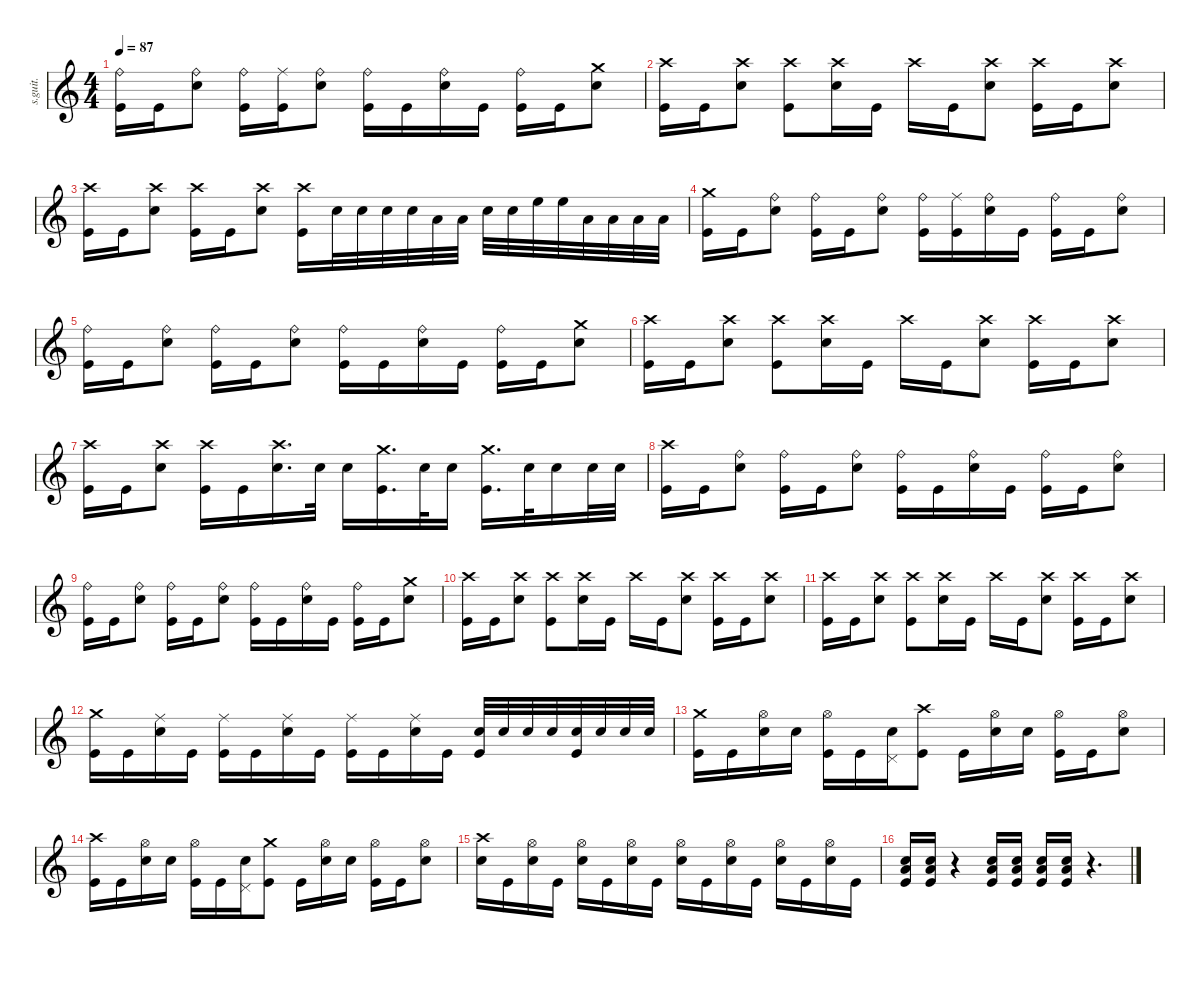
\defaultSystemsLayout 4
\hideDynamics
\bracketExtendMode nobrackets
\track ("Taylor Hawkins (Drums)" "s.guit.") {instrument percussion}
\staff {score}
\articulation defaults
\ts (4 4)
\tempo 87
\clef g2
\ks c
("Ride (bell)" "Kick (hit)").16{lyrics (0 "") lyrics (1 "") lyrics (2 "") lyrics (3 "") lyrics (4 "") dy f} "Kick (hit)".16{lyrics (0 "") lyrics (1 "") lyrics (2 "") lyrics (3 "") lyrics (4 "")} ("Ride (bell)" "Snare (hit) 2").8{lyrics (0 "") lyrics (1 "") lyrics (2 "") lyrics (3 "") lyrics (4 "")} ("Ride (bell)" "Kick (hit)").16{lyrics (0 "") lyrics (1 "") lyrics (2 "") lyrics (3 "") lyrics (4 "")} ("Ride (middle)" "Kick (hit)").16{lyrics (0 "") lyrics (1 "") lyrics (2 "") lyrics (3 "") lyrics (4 "")} ("Ride (bell)" "Snare (hit) 2").8{lyrics (0 "") lyrics (1 "") lyrics (2 "") lyrics (3 "") lyrics (4 "")} ("Ride (bell)" "Kick (hit)").16{lyrics (0 "") lyrics (1 "") lyrics (2 "") lyrics (3 "") lyrics (4 "")} "Kick (hit)".16{lyrics (0 "") lyrics (1 "") lyrics (2 "") lyrics (3 "") lyrics (4 "")} ("Ride (bell)" "Snare (hit) 2").16{lyrics (0 "") lyrics (1 "") lyrics (2 "") lyrics (3 "") lyrics (4 "")} "Kick (hit)".16{lyrics (0 "") lyrics (1 "") lyrics (2 "") lyrics (3 "") lyrics (4 "")} ("Ride (bell)" "Kick (hit)").16{lyrics (0 "") lyrics (1 "") lyrics (2 "") lyrics (3 "") lyrics (4 "")} "Kick (hit)".16{lyrics (0 "") lyrics (1 "") lyrics (2 "") lyrics (3 "") lyrics (4 "")} ("Crash medium (hit)" "Snare (hit) 2").8{lyrics (0 "") lyrics (1 "") lyrics (2 "") lyrics (3 "") lyrics (4 "")} |
("Crash high (hit)" "Kick (hit)").16{lyrics (0 "") lyrics (1 "") lyrics (2 "") lyrics (3 "") lyrics (4 "")} "Kick (hit)".16{lyrics (0 "") lyrics (1 "") lyrics (2 "") lyrics (3 "") lyrics (4 "")} ("Crash high (hit)" "Snare (hit) 2").8{lyrics (0 "") lyrics (1 "") lyrics (2 "") lyrics (3 "") lyrics (4 "")} ("Crash high (hit)" "Kick (hit)").8{lyrics (0 "") lyrics (1 "") lyrics (2 "") lyrics (3 "") lyrics (4 "")} ("Crash high (hit)" "Snare (hit) 2").16{lyrics (0 "") lyrics (1 "") lyrics (2 "") lyrics (3 "") lyrics (4 "")} "Kick (hit)".16{lyrics (0 "") lyrics (1 "") lyrics (2 "") lyrics (3 "") lyrics (4 "")} "Crash high (hit)".16{lyrics (0 "") lyrics (1 "") lyrics (2 "") lyrics (3 "") lyrics (4 "")} "Kick (hit)".16{lyrics (0 "") lyrics (1 "") lyrics (2 "") lyrics (3 "") lyrics (4 "")} ("Crash high (hit)" "Snare (hit) 2").8{lyrics (0 "") lyrics (1 "") lyrics (2 "") lyrics (3 "") lyrics (4 "")} ("Crash high (hit)" "Kick (hit)").16{lyrics (0 "") lyrics (1 "") lyrics (2 "") lyrics (3 "") lyrics (4 "")} "Kick (hit)".16{lyrics (0 "") lyrics (1 "") lyrics (2 "") lyrics (3 "") lyrics (4 "")} ("Crash high (hit)" "Snare (hit) 2").8{lyrics (0 "") lyrics (1 "") lyrics (2 "") lyrics (3 "") lyrics (4 "")} |
("Crash high (hit)" "Kick (hit)").16{lyrics (0 "") lyrics (1 "") lyrics (2 "") lyrics (3 "") lyrics (4 "")} "Kick (hit)".16{lyrics (0 "") lyrics (1 "") lyrics (2 "") lyrics (3 "") lyrics (4 "")} ("Crash high (hit)" "Snare (hit) 2").8{lyrics (0 "") lyrics (1 "") lyrics (2 "") lyrics (3 "") lyrics (4 "")} ("Crash high (hit)" "Kick (hit)").16{lyrics (0 "") lyrics (1 "") lyrics (2 "") lyrics (3 "") lyrics (4 "")} "Kick (hit)".16{lyrics (0 "") lyrics (1 "") lyrics (2 "") lyrics (3 "") lyrics (4 "")} ("Crash high (hit)" "Snare (hit) 2").8{lyrics (0 "") lyrics (1 "") lyrics (2 "") lyrics (3 "") lyrics (4 "")} ("Crash high (hit)" "Kick (hit)").16{lyrics (0 "") lyrics (1 "") lyrics (2 "") lyrics (3 "") lyrics (4 "")} "Snare (hit) 2".32{lyrics (0 "") lyrics (1 "") lyrics (2 "") lyrics (3 "") lyrics (4 "")} "Snare (hit) 2".32{lyrics (0 "") lyrics (1 "") lyrics (2 "") lyrics (3 "") lyrics (4 "")} "Snare (hit) 2".32{lyrics (0 "") lyrics (1 "") lyrics (2 "") lyrics (3 "") lyrics (4 "")} "Snare (hit) 2".32{lyrics (0 "") lyrics (1 "") lyrics (2 "") lyrics (3 "") lyrics (4 "")} "Low Tom (hit)".32{lyrics (0 "") lyrics (1 "") lyrics (2 "") lyrics (3 "") lyrics (4 "") dy ff} "Low Tom (hit)".32{lyrics (0 "") lyrics (1 "") lyrics (2 "") lyrics (3 "") lyrics (4 "")} "Snare (hit) 2".32{lyrics (0 "") lyrics (1 "") lyrics (2 "") lyrics (3 "") lyrics (4 "") dy f} "Snare (hit) 2".32{lyrics (0 "") lyrics (1 "") lyrics (2 "") lyrics (3 "") lyrics (4 "")} "High Floor Tom (hit)".32{lyrics (0 "") lyrics (1 "") lyrics (2 "") lyrics (3 "") lyrics (4 "") dy ff} "High Floor Tom (hit)".32{lyrics (0 "") lyrics (1 "") lyrics (2 "") lyrics (3 "") lyrics (4 "")} "Low Tom (hit)".32{lyrics (0 "") lyrics (1 "") lyrics (2 "") lyrics (3 "") lyrics (4 "")} "Low Tom (hit)".32{lyrics (0 "") lyrics (1 "") lyrics (2 "") lyrics (3 "") lyrics (4 "")} "Low Floor Tom (hit)".32{lyrics (0 "") lyrics (1 "") lyrics (2 "") lyrics (3 "") lyrics (4 "")} "Low Floor Tom (hit)".32{lyrics (0 "") lyrics (1 "") lyrics (2 "") lyrics (3 "") lyrics (4 "")} |
("Crash medium (hit)" "Kick (hit)").16{lyrics (0 "") lyrics (1 "") lyrics (2 "") lyrics (3 "") lyrics (4 "") dy f} "Kick (hit)".16{lyrics (0 "") lyrics (1 "") lyrics (2 "") lyrics (3 "") lyrics (4 "")} ("Ride (bell)" "Snare (hit) 2").8{lyrics (0 "") lyrics (1 "") lyrics (2 "") lyrics (3 "") lyrics (4 "")} ("Ride (bell)" "Kick (hit)").16{lyrics (0 "") lyrics (1 "") lyrics (2 "") lyrics (3 "") lyrics (4 "")} "Kick (hit)".16{lyrics (0 "") lyrics (1 "") lyrics (2 "") lyrics (3 "") lyrics (4 "")} ("Ride (bell)" "Snare (hit) 2").8{lyrics (0 "") lyrics (1 "") lyrics (2 "") lyrics (3 "") lyrics (4 "")} ("Ride (bell)" "Kick (hit)").16{lyrics (0 "") lyrics (1 "") lyrics (2 "") lyrics (3 "") lyrics (4 "")} ("Ride (middle)" "Kick (hit)").16{lyrics (0 "") lyrics (1 "") lyrics (2 "") lyrics (3 "") lyrics (4 "")} ("Ride (bell)" "Snare (hit) 2").16{lyrics (0 "") lyrics (1 "") lyrics (2 "") lyrics (3 "") lyrics (4 "")} "Kick (hit)".16{lyrics (0 "") lyrics (1 "") lyrics (2 "") lyrics (3 "") lyrics (4 "")} ("Ride (bell)" "Kick (hit)").16{lyrics (0 "") lyrics (1 "") lyrics (2 "") lyrics (3 "") lyrics (4 "")} "Kick (hit)".16{lyrics (0 "") lyrics (1 "") lyrics (2 "") lyrics (3 "") lyrics (4 "")} ("Ride (bell)" "Snare (hit) 2").8{lyrics (0 "") lyrics (1 "") lyrics (2 "") lyrics (3 "") lyrics (4 "")} |
("Ride (bell)" "Kick (hit)").16{lyrics (0 "") lyrics (1 "") lyrics (2 "") lyrics (3 "") lyrics (4 "")} "Kick (hit)".16{lyrics (0 "") lyrics (1 "") lyrics (2 "") lyrics (3 "") lyrics (4 "")} ("Ride (bell)" "Snare (hit) 2").8{lyrics (0 "") lyrics (1 "") lyrics (2 "") lyrics (3 "") lyrics (4 "")} ("Ride (bell)" "Kick (hit)").16{lyrics (0 "") lyrics (1 "") lyrics (2 "") lyrics (3 "") lyrics (4 "")} "Kick (hit)".16{lyrics (0 "") lyrics (1 "") lyrics (2 "") lyrics (3 "") lyrics (4 "")} ("Ride (bell)" "Snare (hit) 2").8{lyrics (0 "") lyrics (1 "") lyrics (2 "") lyrics (3 "") lyrics (4 "")} ("Ride (bell)" "Kick (hit)").16{lyrics (0 "") lyrics (1 "") lyrics (2 "") lyrics (3 "") lyrics (4 "")} "Kick (hit)".16{lyrics (0 "") lyrics (1 "") lyrics (2 "") lyrics (3 "") lyrics (4 "")} ("Ride (bell)" "Snare (hit) 2").16{lyrics (0 "") lyrics (1 "") lyrics (2 "") lyrics (3 "") lyrics (4 "")} "Kick (hit)".16{lyrics (0 "") lyrics (1 "") lyrics (2 "") lyrics (3 "") lyrics (4 "")} ("Ride (bell)" "Kick (hit)").16{lyrics (0 "") lyrics (1 "") lyrics (2 "") lyrics (3 "") lyrics (4 "")} "Kick (hit)".16{lyrics (0 "") lyrics (1 "") lyrics (2 "") lyrics (3 "") lyrics (4 "")} ("Crash medium (hit)" "Snare (hit) 2").8{lyrics (0 "") lyrics (1 "") lyrics (2 "") lyrics (3 "") lyrics (4 "")} |
("Crash high (hit)" "Kick (hit)").16{lyrics (0 "") lyrics (1 "") lyrics (2 "") lyrics (3 "") lyrics (4 "")} "Kick (hit)".16{lyrics (0 "") lyrics (1 "") lyrics (2 "") lyrics (3 "") lyrics (4 "")} ("Crash high (hit)" "Snare (hit) 2").8{lyrics (0 "") lyrics (1 "") lyrics (2 "") lyrics (3 "") lyrics (4 "")} ("Crash high (hit)" "Kick (hit)").8{lyrics (0 "") lyrics (1 "") lyrics (2 "") lyrics (3 "") lyrics (4 "")} ("Crash high (hit)" "Snare (hit) 2").16{lyrics (0 "") lyrics (1 "") lyrics (2 "") lyrics (3 "") lyrics (4 "")} "Kick (hit)".16{lyrics (0 "") lyrics (1 "") lyrics (2 "") lyrics (3 "") lyrics (4 "")} "Crash high (hit)".16{lyrics (0 "") lyrics (1 "") lyrics (2 "") lyrics (3 "") lyrics (4 "")} "Kick (hit)".16{lyrics (0 "") lyrics (1 "") lyrics (2 "") lyrics (3 "") lyrics (4 "")} ("Crash high (hit)" "Snare (hit) 2").8{lyrics (0 "") lyrics (1 "") lyrics (2 "") lyrics (3 "") lyrics (4 "")} ("Crash high (hit)" "Kick (hit)").16{lyrics (0 "") lyrics (1 "") lyrics (2 "") lyrics (3 "") lyrics (4 "")} "Kick (hit)".16{lyrics (0 "") lyrics (1 "") lyrics (2 "") lyrics (3 "") lyrics (4 "")} ("Crash high (hit)" "Snare (hit) 2").8{lyrics (0 "") lyrics (1 "") lyrics (2 "") lyrics (3 "") lyrics (4 "")} |
("Crash high (hit)" "Kick (hit)").16{lyrics (0 "") lyrics (1 "") lyrics (2 "") lyrics (3 "") lyrics (4 "")} "Kick (hit)".16{lyrics (0 "") lyrics (1 "") lyrics (2 "") lyrics (3 "") lyrics (4 "")} ("Crash high (hit)" "Snare (hit) 2").8{lyrics (0 "") lyrics (1 "") lyrics (2 "") lyrics (3 "") lyrics (4 "")} ("Crash high (hit)" "Kick (hit)").16{lyrics (0 "") lyrics (1 "") lyrics (2 "") lyrics (3 "") lyrics (4 "")} "Kick (hit)".16{lyrics (0 "") lyrics (1 "") lyrics (2 "") lyrics (3 "") lyrics (4 "")} ("Crash high (hit)" "Snare (hit) 2").16{d lyrics (0 "") lyrics (1 "") lyrics (2 "") lyrics (3 "") lyrics (4 "")} "Snare (hit) 2".32{lyrics (0 "") lyrics (1 "") lyrics (2 "") lyrics (3 "") lyrics (4 "")} "Snare (hit) 2".16{lyrics (0 "") lyrics (1 "") lyrics (2 "") lyrics (3 "") lyrics (4 "")} ("Crash medium (hit)" "Kick (hit)").16{d lyrics (0 "") lyrics (1 "") lyrics (2 "") lyrics (3 "") lyrics (4 "")} "Snare (hit) 2".32{lyrics (0 "") lyrics (1 "") lyrics (2 "") lyrics (3 "") lyrics (4 "")} "Snare (hit) 2".16{lyrics (0 "") lyrics (1 "") lyrics (2 "") lyrics (3 "") lyrics (4 "")} ("Crash medium (hit)" "Kick (hit)").16{d lyrics (0 "") lyrics (1 "") lyrics (2 "") lyrics (3 "") lyrics (4 "")} "Snare (hit) 2".32{lyrics (0 "") lyrics (1 "") lyrics (2 "") lyrics (3 "") lyrics (4 "")} "Snare (hit) 2".16{lyrics (0 "") lyrics (1 "") lyrics (2 "") lyrics (3 "") lyrics (4 "")} "Snare (hit) 2".32{lyrics (0 "") lyrics (1 "") lyrics (2 "") lyrics (3 "") lyrics (4 "")} "Snare (hit) 2".32{lyrics (0 "") lyrics (1 "") lyrics (2 "") lyrics (3 "") lyrics (4 "")} |
("Crash high (hit)" "Kick (hit)").16{lyrics (0 "") lyrics (1 "") lyrics (2 "") lyrics (3 "") lyrics (4 "")} "Kick (hit)".16{lyrics (0 "") lyrics (1 "") lyrics (2 "") lyrics (3 "") lyrics (4 "")} ("Ride (bell)" "Snare (hit) 2").8{lyrics (0 "") lyrics (1 "") lyrics (2 "") lyrics (3 "") lyrics (4 "")} ("Ride (bell)" "Kick (hit)").16{lyrics (0 "") lyrics (1 "") lyrics (2 "") lyrics (3 "") lyrics (4 "")} "Kick (hit)".16{lyrics (0 "") lyrics (1 "") lyrics (2 "") lyrics (3 "") lyrics (4 "")} ("Ride (bell)" "Snare (hit) 2").8{lyrics (0 "") lyrics (1 "") lyrics (2 "") lyrics (3 "") lyrics (4 "")} ("Ride (bell)" "Kick (hit)").16{lyrics (0 "") lyrics (1 "") lyrics (2 "") lyrics (3 "") lyrics (4 "")} "Kick (hit)".16{lyrics (0 "") lyrics (1 "") lyrics (2 "") lyrics (3 "") lyrics (4 "")} ("Ride (bell)" "Snare (hit) 2").16{lyrics (0 "") lyrics (1 "") lyrics (2 "") lyrics (3 "") lyrics (4 "")} "Kick (hit)".16{lyrics (0 "") lyrics (1 "") lyrics (2 "") lyrics (3 "") lyrics (4 "")} ("Ride (bell)" "Kick (hit)").16{lyrics (0 "") lyrics (1 "") lyrics (2 "") lyrics (3 "") lyrics (4 "")} "Kick (hit)".16{lyrics (0 "") lyrics (1 "") lyrics (2 "") lyrics (3 "") lyrics (4 "")} ("Ride (bell)" "Snare (hit) 2").8{lyrics (0 "") lyrics (1 "") lyrics (2 "") lyrics (3 "") lyrics (4 "")} |
("Ride (bell)" "Kick (hit)").16{lyrics (0 "") lyrics (1 "") lyrics (2 "") lyrics (3 "") lyrics (4 "")} "Kick (hit)".16{lyrics (0 "") lyrics (1 "") lyrics (2 "") lyrics (3 "") lyrics (4 "")} ("Ride (bell)" "Snare (hit) 2").8{lyrics (0 "") lyrics (1 "") lyrics (2 "") lyrics (3 "") lyrics (4 "")} ("Ride (bell)" "Kick (hit)").16{lyrics (0 "") lyrics (1 "") lyrics (2 "") lyrics (3 "") lyrics (4 "")} "Kick (hit)".16{lyrics (0 "") lyrics (1 "") lyrics (2 "") lyrics (3 "") lyrics (4 "")} ("Ride (bell)" "Snare (hit) 2").8{lyrics (0 "") lyrics (1 "") lyrics (2 "") lyrics (3 "") lyrics (4 "")} ("Ride (bell)" "Kick (hit)").16{lyrics (0 "") lyrics (1 "") lyrics (2 "") lyrics (3 "") lyrics (4 "")} "Kick (hit)".16{lyrics (0 "") lyrics (1 "") lyrics (2 "") lyrics (3 "") lyrics (4 "")} ("Ride (bell)" "Snare (hit) 2").16{lyrics (0 "") lyrics (1 "") lyrics (2 "") lyrics (3 "") lyrics (4 "")} "Kick (hit)".16{lyrics (0 "") lyrics (1 "") lyrics (2 "") lyrics (3 "") lyrics (4 "")} ("Ride (bell)" "Kick (hit)").16{lyrics (0 "") lyrics (1 "") lyrics (2 "") lyrics (3 "") lyrics (4 "")} "Kick (hit)".16{lyrics (0 "") lyrics (1 "") lyrics (2 "") lyrics (3 "") lyrics (4 "")} ("Crash medium (hit)" "Snare (hit) 2").8{lyrics (0 "") lyrics (1 "") lyrics (2 "") lyrics (3 "") lyrics (4 "")} |
("Crash high (hit)" "Kick (hit)").16{lyrics (0 "") lyrics (1 "") lyrics (2 "") lyrics (3 "") lyrics (4 "")} "Kick (hit)".16{lyrics (0 "") lyrics (1 "") lyrics (2 "") lyrics (3 "") lyrics (4 "")} ("Crash high (hit)" "Snare (hit) 2").8{lyrics (0 "") lyrics (1 "") lyrics (2 "") lyrics (3 "") lyrics (4 "")} ("Crash high (hit)" "Kick (hit)").8{lyrics (0 "") lyrics (1 "") lyrics (2 "") lyrics (3 "") lyrics (4 "")} ("Crash high (hit)" "Snare (hit) 2").16{lyrics (0 "") lyrics (1 "") lyrics (2 "") lyrics (3 "") lyrics (4 "")} "Kick (hit)".16{lyrics (0 "") lyrics (1 "") lyrics (2 "") lyrics (3 "") lyrics (4 "")} "Crash high (hit)".16{lyrics (0 "") lyrics (1 "") lyrics (2 "") lyrics (3 "") lyrics (4 "")} "Kick (hit)".16{lyrics (0 "") lyrics (1 "") lyrics (2 "") lyrics (3 "") lyrics (4 "")} ("Crash high (hit)" "Snare (hit) 2").8{lyrics (0 "") lyrics (1 "") lyrics (2 "") lyrics (3 "") lyrics (4 "")} ("Crash high (hit)" "Kick (hit)").16{lyrics (0 "") lyrics (1 "") lyrics (2 "") lyrics (3 "") lyrics (4 "")} "Kick (hit)".16{lyrics (0 "") lyrics (1 "") lyrics (2 "") lyrics (3 "") lyrics (4 "")} ("Crash high (hit)" "Snare (hit) 2").8{lyrics (0 "") lyrics (1 "") lyrics (2 "") lyrics (3 "") lyrics (4 "")} |
("Crash high (hit)" "Kick (hit)").16{lyrics (0 "") lyrics (1 "") lyrics (2 "") lyrics (3 "") lyrics (4 "")} "Kick (hit)".16{lyrics (0 "") lyrics (1 "") lyrics (2 "") lyrics (3 "") lyrics (4 "")} ("Crash high (hit)" "Snare (hit) 2").8{lyrics (0 "") lyrics (1 "") lyrics (2 "") lyrics (3 "") lyrics (4 "")} ("Crash high (hit)" "Kick (hit)").8{lyrics (0 "") lyrics (1 "") lyrics (2 "") lyrics (3 "") lyrics (4 "")} ("Crash high (hit)" "Snare (hit) 2").16{lyrics (0 "") lyrics (1 "") lyrics (2 "") lyrics (3 "") lyrics (4 "")} "Kick (hit)".16{lyrics (0 "") lyrics (1 "") lyrics (2 "") lyrics (3 "") lyrics (4 "")} "Crash high (hit)".16{lyrics (0 "") lyrics (1 "") lyrics (2 "") lyrics (3 "") lyrics (4 "")} "Kick (hit)".16{lyrics (0 "") lyrics (1 "") lyrics (2 "") lyrics (3 "") lyrics (4 "")} ("Crash high (hit)" "Snare (hit) 2").8{lyrics (0 "") lyrics (1 "") lyrics (2 "") lyrics (3 "") lyrics (4 "")} ("Crash high (hit)" "Kick (hit)").16{lyrics (0 "") lyrics (1 "") lyrics (2 "") lyrics (3 "") lyrics (4 "")} "Kick (hit)".16{lyrics (0 "") lyrics (1 "") lyrics (2 "") lyrics (3 "") lyrics (4 "")} ("Crash high (hit)" "Snare (hit) 2").8{lyrics (0 "") lyrics (1 "") lyrics (2 "") lyrics (3 "") lyrics (4 "")} |
("Crash medium (hit)" "Kick (hit)").16{lyrics (0 "") lyrics (1 "") lyrics (2 "") lyrics (3 "") lyrics (4 "")} "Kick (hit)".16{lyrics (0 "") lyrics (1 "") lyrics (2 "") lyrics (3 "") lyrics (4 "")} ("Ride (middle)" "Snare (hit) 2").16{lyrics (0 "") lyrics (1 "") lyrics (2 "") lyrics (3 "") lyrics (4 "")} "Kick (hit)".16{lyrics (0 "") lyrics (1 "") lyrics (2 "") lyrics (3 "") lyrics (4 "")} ("Ride (middle)" "Kick (hit)").16{lyrics (0 "") lyrics (1 "") lyrics (2 "") lyrics (3 "") lyrics (4 "")} "Kick (hit)".16{lyrics (0 "") lyrics (1 "") lyrics (2 "") lyrics (3 "") lyrics (4 "")} ("Ride (middle)" "Snare (hit) 2").16{lyrics (0 "") lyrics (1 "") lyrics (2 "") lyrics (3 "") lyrics (4 "")} "Kick (hit)".16{lyrics (0 "") lyrics (1 "") lyrics (2 "") lyrics (3 "") lyrics (4 "")} ("Ride (middle)" "Kick (hit)").16{lyrics (0 "") lyrics (1 "") lyrics (2 "") lyrics (3 "") lyrics (4 "")} "Kick (hit)".16{lyrics (0 "") lyrics (1 "") lyrics (2 "") lyrics (3 "") lyrics (4 "")} ("Ride (middle)" "Snare (hit) 2").16{lyrics (0 "") lyrics (1 "") lyrics (2 "") lyrics (3 "") lyrics (4 "")} "Kick (hit)".16{lyrics (0 "") lyrics (1 "") lyrics (2 "") lyrics (3 "") lyrics (4 "")} ("Snare (hit) 2" "Kick (hit)").32{lyrics (0 "") lyrics (1 "") lyrics (2 "") lyrics (3 "") lyrics (4 "")} "Snare (hit) 2".32{lyrics (0 "") lyrics (1 "") lyrics (2 "") lyrics (3 "") lyrics (4 "")} "Snare (hit) 2".32{lyrics (0 "") lyrics (1 "") lyrics (2 "") lyrics (3 "") lyrics (4 "")} "Snare (hit) 2".32{lyrics (0 "") lyrics (1 "") lyrics (2 "") lyrics (3 "") lyrics (4 "")} ("Snare (hit) 2" "Kick (hit)").32{lyrics (0 "") lyrics (1 "") lyrics (2 "") lyrics (3 "") lyrics (4 "")} "Snare (hit) 2".32{lyrics (0 "") lyrics (1 "") lyrics (2 "") lyrics (3 "") lyrics (4 "")} "Snare (hit) 2".32{lyrics (0 "") lyrics (1 "") lyrics (2 "") lyrics (3 "") lyrics (4 "")} "Snare (hit) 2".32{lyrics (0 "") lyrics (1 "") lyrics (2 "") lyrics (3 "") lyrics (4 "")} |
("Crash medium (hit)" "Kick (hit)").16{lyrics (0 "") lyrics (1 "") lyrics (2 "") lyrics (3 "") lyrics (4 "")} "Kick (hit)".16{lyrics (0 "") lyrics (1 "") lyrics (2 "") lyrics (3 "") lyrics (4 "")} ("Hi-Hat (open)" "Snare (hit) 2").16{lyrics (0 "") lyrics (1 "") lyrics (2 "") lyrics (3 "") lyrics (4 "")} "Snare (hit) 2".16{lyrics (0 "") lyrics (1 "") lyrics (2 "") lyrics (3 "") lyrics (4 "")} ("Hi-Hat (open)" "Kick (hit)").16{lyrics (0 "") lyrics (1 "") lyrics (2 "") lyrics (3 "") lyrics (4 "")} "Kick (hit)".16{lyrics (0 "") lyrics (1 "") lyrics (2 "") lyrics (3 "") lyrics (4 "")} ("Snare (hit) 2" "Pedal Hi-Hat (hit)").16{lyrics (0 "") lyrics (1 "") lyrics (2 "") lyrics (3 "") lyrics (4 "")} ("Crash high (hit)" "Kick (hit)").8{lyrics (0 "") lyrics (1 "") lyrics (2 "") lyrics (3 "") lyrics (4 "")} "Kick (hit)".16{lyrics (0 "") lyrics (1 "") lyrics (2 "") lyrics (3 "") lyrics (4 "")} ("Hi-Hat (open)" "Snare (hit) 2").16{lyrics (0 "") lyrics (1 "") lyrics (2 "") lyrics (3 "") lyrics (4 "")} "Snare (hit) 2".16{lyrics (0 "") lyrics (1 "") lyrics (2 "") lyrics (3 "") lyrics (4 "")} ("Hi-Hat (open)" "Kick (hit)").16{lyrics (0 "") lyrics (1 "") lyrics (2 "") lyrics (3 "") lyrics (4 "")} "Kick (hit)".16{lyrics (0 "") lyrics (1 "") lyrics (2 "") lyrics (3 "") lyrics (4 "")} ("Hi-Hat (open)" "Snare (hit) 2").8{lyrics (0 "") lyrics (1 "") lyrics (2 "") lyrics (3 "") lyrics (4 "")} |
("Crash high (hit)" "Kick (hit)").16{lyrics (0 "") lyrics (1 "") lyrics (2 "") lyrics (3 "") lyrics (4 "")} "Kick (hit)".16{lyrics (0 "") lyrics (1 "") lyrics (2 "") lyrics (3 "") lyrics (4 "")} ("Hi-Hat (open)" "Snare (hit) 2").16{lyrics (0 "") lyrics (1 "") lyrics (2 "") lyrics (3 "") lyrics (4 "")} "Snare (hit) 2".16{lyrics (0 "") lyrics (1 "") lyrics (2 "") lyrics (3 "") lyrics (4 "")} ("Hi-Hat (open)" "Kick (hit)").16{lyrics (0 "") lyrics (1 "") lyrics (2 "") lyrics (3 "") lyrics (4 "")} "Kick (hit)".16{lyrics (0 "") lyrics (1 "") lyrics (2 "") lyrics (3 "") lyrics (4 "")} ("Snare (hit) 2" "Pedal Hi-Hat (hit)").16{lyrics (0 "") lyrics (1 "") lyrics (2 "") lyrics (3 "") lyrics (4 "")} ("Crash medium (hit)" "Kick (hit)").8{lyrics (0 "") lyrics (1 "") lyrics (2 "") lyrics (3 "") lyrics (4 "")} "Kick (hit)".16{lyrics (0 "") lyrics (1 "") lyrics (2 "") lyrics (3 "") lyrics (4 "")} ("Hi-Hat (open)" "Snare (hit) 2").16{lyrics (0 "") lyrics (1 "") lyrics (2 "") lyrics (3 "") lyrics (4 "")} "Snare (hit) 2".16{lyrics (0 "") lyrics (1 "") lyrics (2 "") lyrics (3 "") lyrics (4 "")} ("Hi-Hat (open)" "Kick (hit)").16{lyrics (0 "") lyrics (1 "") lyrics (2 "") lyrics (3 "") lyrics (4 "")} "Kick (hit)".16{lyrics (0 "") lyrics (1 "") lyrics (2 "") lyrics (3 "") lyrics (4 "")} ("Hi-Hat (open)" "Snare (hit) 2").8{lyrics (0 "") lyrics (1 "") lyrics (2 "") lyrics (3 "") lyrics (4 "")} |
("Crash high (hit)" "Snare (hit) 2").16{lyrics (0 "") lyrics (1 "") lyrics (2 "") lyrics (3 "") lyrics (4 "")} "Kick (hit)".16{lyrics (0 "") lyrics (1 "") lyrics (2 "") lyrics (3 "") lyrics (4 "")} ("Hi-Hat (open)" "Snare (hit) 2").16{lyrics (0 "") lyrics (1 "") lyrics (2 "") lyrics (3 "") lyrics (4 "")} "Kick (hit)".16{lyrics (0 "") lyrics (1 "") lyrics (2 "") lyrics (3 "") lyrics (4 "")} ("Hi-Hat (open)" "Snare (hit) 2").16{lyrics (0 "") lyrics (1 "") lyrics (2 "") lyrics (3 "") lyrics (4 "")} "Kick (hit)".16{lyrics (0 "") lyrics (1 "") lyrics (2 "") lyrics (3 "") lyrics (4 "")} ("Hi-Hat (open)" "Snare (hit) 2").16{lyrics (0 "") lyrics (1 "") lyrics (2 "") lyrics (3 "") lyrics (4 "")} "Kick (hit)".16{lyrics (0 "") lyrics (1 "") lyrics (2 "") lyrics (3 "") lyrics (4 "")} ("Hi-Hat (open)" "Snare (hit) 2").16{lyrics (0 "") lyrics (1 "") lyrics (2 "") lyrics (3 "") lyrics (4 "")} "Kick (hit)".16{lyrics (0 "") lyrics (1 "") lyrics (2 "") lyrics (3 "") lyrics (4 "")} ("Hi-Hat (open)" "Snare (hit) 2").16{lyrics (0 "") lyrics (1 "") lyrics (2 "") lyrics (3 "") lyrics (4 "")} "Kick (hit)".16{lyrics (0 "") lyrics (1 "") lyrics (2 "") lyrics (3 "") lyrics (4 "")} ("Hi-Hat (open)" "Snare (hit) 2").16{lyrics (0 "") lyrics (1 "") lyrics (2 "") lyrics (3 "") lyrics (4 "")} "Kick (hit)".16{lyrics (0 "") lyrics (1 "") lyrics (2 "") lyrics (3 "") lyrics (4 "")} ("Hi-Hat (open)" "Snare (hit) 2").16{lyrics (0 "") lyrics (1 "") lyrics (2 "") lyrics (3 "") lyrics (4 "")} "Kick (hit)".16{lyrics (0 "") lyrics (1 "") lyrics (2 "") lyrics (3 "") lyrics (4 "")} |
("Snare (hit) 2" "Low Floor Tom (hit)" "Kick (hit)").16{lyrics (0 "") lyrics (1 "") lyrics (2 "") lyrics (3 "") lyrics (4 "")} ("Snare (hit) 2" "Low Floor Tom (hit)" "Kick (hit)").16{lyrics (0 "") lyrics (1 "") lyrics (2 "") lyrics (3 "") lyrics (4 "")} r.4 ("Snare (hit) 2" "Low Floor Tom (hit)" "Kick (hit)").16{lyrics (0 "") lyrics (1 "") lyrics (2 "") lyrics (3 "") lyrics (4 "")} ("Snare (hit) 2" "Low Floor Tom (hit)" "Kick (hit)").16{lyrics (0 "") lyrics (1 "") lyrics (2 "") lyrics (3 "") lyrics (4 "")} ("Snare (hit) 2" "Low Floor Tom (hit)" "Kick (hit)").16{lyrics (0 "") lyrics (1 "") lyrics (2 "") lyrics (3 "") lyrics (4 "")} ("Snare (hit) 2" "Low Floor Tom (hit)" "Kick (hit)").16{lyrics (0 "") lyrics (1 "") lyrics (2 "") lyrics (3 "") lyrics (4 "")} r.4{d}
